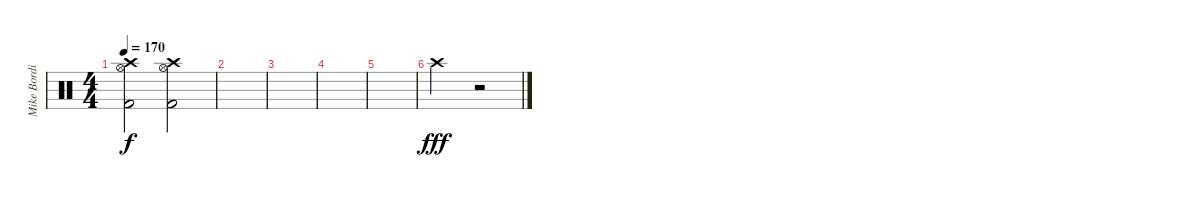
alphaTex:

\track ("Mike Bordin" "Mike Bordi") {instrument percussion}
\staff {score}
\articulation defaults
\ts (4 4)
\tempo 170
\clef neutral
\ks c
("Hi-Hat (open)" "Crash high (hit)" "Kick (hit) 2").2{dy f} ("Hi-Hat (open)" "Crash high (hit)" "Kick (hit) 2").2 |
|
|
|
|
"Crash high (hit)".2{dy fff} r.2
